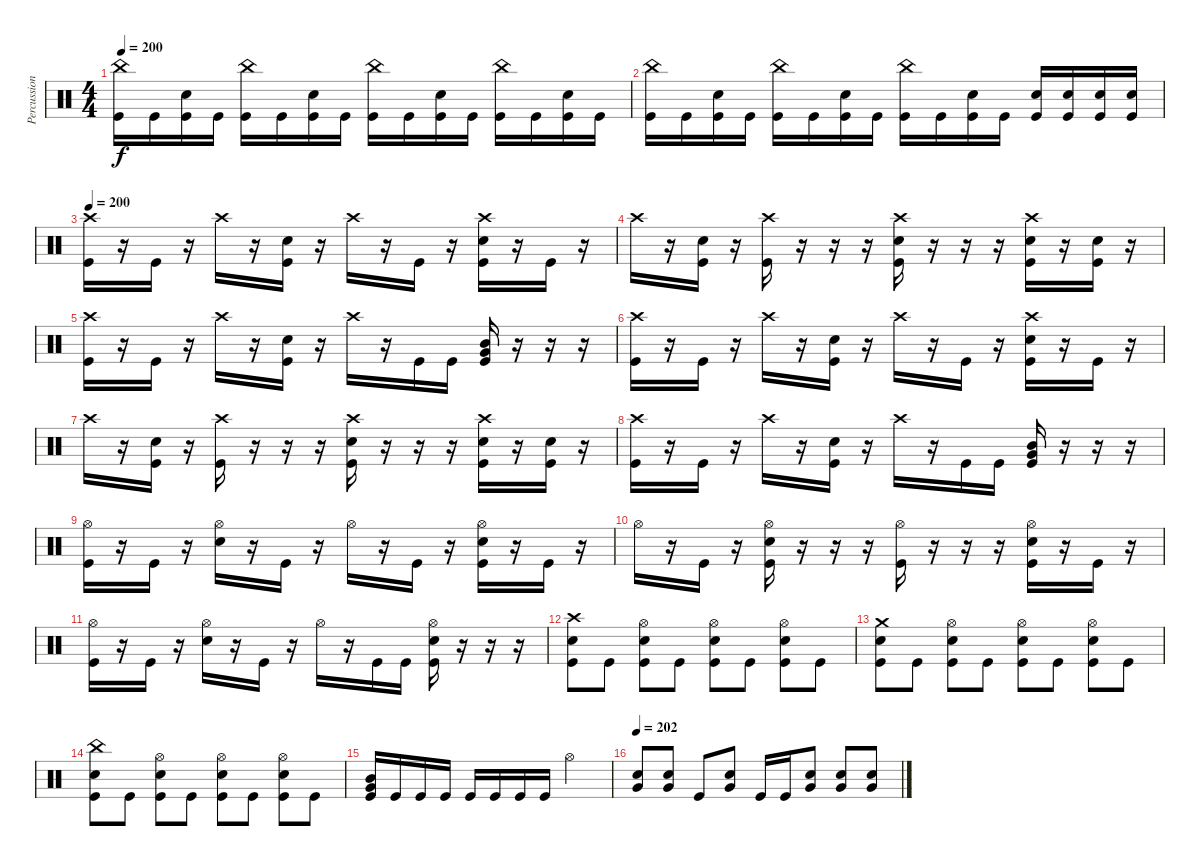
\track ("Percussion" "Percussion") {instrument percussion}
\staff {score}
\articulation defaults
\ts (4 4)
\tempo 200
\clef neutral
\ks c
("China (hit)" "Kick (hit)").16{dy f} "Kick (hit)".16 ("Snare (hit) 2" "Kick (hit)").16 "Kick (hit)".16 ("China (hit)" "Kick (hit)").16 "Kick (hit)".16 ("Snare (hit) 2" "Kick (hit)").16 "Kick (hit)".16 ("China (hit)" "Kick (hit)").16 "Kick (hit)".16 ("Snare (hit) 2" "Kick (hit)").16 "Kick (hit)".16 ("China (hit)" "Kick (hit)").16 "Kick (hit)".16 ("Snare (hit) 2" "Kick (hit)").16 "Kick (hit)".16 |
("China (hit)" "Kick (hit)").16 "Kick (hit)".16 ("Snare (hit) 2" "Kick (hit)").16 "Kick (hit)".16 ("China (hit)" "Kick (hit)").16 "Kick (hit)".16 ("Snare (hit) 2" "Kick (hit)").16 "Kick (hit)".16 ("China (hit)" "Kick (hit)").16 "Kick (hit)".16 ("Snare (hit) 2" "Kick (hit)").16 "Kick (hit)".16 ("Snare (hit) 2" "Kick (hit)").16 ("Snare (hit) 2" "Kick (hit)").16 ("Snare (hit) 2" "Kick (hit)").16 ("Snare (hit) 2" "Kick (hit)").16 |
\tempo 200
("Crash high (hit)" "Kick (hit)").16 r.16 "Kick (hit)".16 r.16 "Crash high (hit)".16 r.16 ("Snare (hit) 2" "Kick (hit)").16 r.16 "Crash high (hit)".16 r.16 "Kick (hit)".16 r.16 ("Crash high (hit)" "Snare (hit) 2" "Kick (hit)").16 r.16 "Kick (hit)".16 r.16 |
"Crash high (hit)".16 r.16 ("Snare (hit) 2" "Kick (hit)").16 r.16 ("Crash high (hit)" "Kick (hit)").16 r.16 r.16 r.16 ("Crash high (hit)" "Snare (hit) 2" "Kick (hit)").16 r.16 r.16 r.16 ("Crash high (hit)" "Snare (hit) 2" "Kick (hit)").16 r.16 ("Snare (hit) 2" "Kick (hit)").16 r.16 |
("Crash high (hit)" "Kick (hit)").16 r.16 "Kick (hit)".16 r.16 "Crash high (hit)".16 r.16 ("Snare (hit) 2" "Kick (hit)").16 r.16 "Crash high (hit)".16 r.16 "Kick (hit)".16 "Kick (hit)".16 ("Very Low Tom (hit)" "Mid Tom (hit)" "Kick (hit)").16 r.16 r.16 r.16 |
("Crash high (hit)" "Kick (hit)").16 r.16 "Kick (hit)".16 r.16 "Crash high (hit)".16 r.16 ("Snare (hit) 2" "Kick (hit)").16 r.16 "Crash high (hit)".16 r.16 "Kick (hit)".16 r.16 ("Crash high (hit)" "Snare (hit) 2" "Kick (hit)").16 r.16 "Kick (hit)".16 r.16 |
"Crash high (hit)".16 r.16 ("Snare (hit) 2" "Kick (hit)").16 r.16 ("Crash high (hit)" "Kick (hit)").16 r.16 r.16 r.16 ("Crash high (hit)" "Snare (hit) 2" "Kick (hit)").16 r.16 r.16 r.16 ("Crash high (hit)" "Snare (hit) 2" "Kick (hit)").16 r.16 ("Snare (hit) 2" "Kick (hit)").16 r.16 |
("Crash high (hit)" "Kick (hit)").16 r.16 "Kick (hit)".16 r.16 "Crash high (hit)".16 r.16 ("Snare (hit) 2" "Kick (hit)").16 r.16 "Crash high (hit)".16 r.16 "Kick (hit)".16 "Kick (hit)".16 ("Very Low Tom (hit)" "Mid Tom (hit)" "Kick (hit)").16 r.16 r.16 r.16 |
("Hi-Hat (open)" "Kick (hit)").16 r.16 "Kick (hit)".16 r.16 ("Hi-Hat (open)" "Snare (hit) 2").16 r.16 "Kick (hit)".16 r.16 "Hi-Hat (open)".16 r.16 "Kick (hit)".16 r.16 ("Hi-Hat (open)" "Snare (hit) 2" "Kick (hit)").16 r.16 "Kick (hit)".16 r.16 |
"Hi-Hat (open)".16 r.16 "Kick (hit)".16 r.16 ("Hi-Hat (open)" "Snare (hit) 2" "Kick (hit)").16 r.16 r.16 r.16 ("Hi-Hat (open)" "Kick (hit)").16 r.16 r.16 r.16 ("Hi-Hat (open)" "Snare (hit) 2" "Kick (hit)").16 r.16 "Kick (hit)".16 r.16 |
("Hi-Hat (open)" "Kick (hit)").16 r.16 "Kick (hit)".16 r.16 ("Hi-Hat (open)" "Snare (hit) 2").16 r.16 "Kick (hit)".16 r.16 "Hi-Hat (open)".16 r.16 "Kick (hit)".16 "Kick (hit)".16 ("Hi-Hat (open)" "Snare (hit) 2" "Kick (hit)").16 r.16 r.16 r.16 |
("Crash high (hit)" "Snare (hit) 2" "Kick (hit)").8 "Kick (hit)".8 ("Hi-Hat (open)" "Snare (hit) 2" "Kick (hit)").8 "Kick (hit)".8 ("Hi-Hat (open)" "Snare (hit) 2" "Kick (hit)").8 "Kick (hit)".8 ("Hi-Hat (open)" "Snare (hit) 2" "Kick (hit)").8 "Kick (hit)".8 |
("Crash medium (hit)" "Snare (hit) 2" "Kick (hit)").8 "Kick (hit)".8 ("Hi-Hat (open)" "Snare (hit) 2" "Kick (hit)").8 "Kick (hit)".8 ("Hi-Hat (open)" "Snare (hit) 2" "Kick (hit)").8 "Kick (hit)".8 ("Hi-Hat (open)" "Snare (hit) 2" "Kick (hit)").8 "Kick (hit)".8 |
("China (hit)" "Snare (hit) 2" "Kick (hit)").8 "Kick (hit)".8 ("Hi-Hat (open)" "Snare (hit) 2" "Kick (hit)").8 "Kick (hit)".8 ("Hi-Hat (open)" "Snare (hit) 2" "Kick (hit)").8 "Kick (hit)".8 ("Hi-Hat (open)" "Snare (hit) 2" "Kick (hit)").8 "Kick (hit)".8 |
("Mid Tom (hit)" "Very Low Tom (hit)" "Kick (hit)").16 "Kick (hit)".16 "Kick (hit)".16 "Kick (hit)".16 "Kick (hit)".16 "Kick (hit)".16 "Kick (hit)".16 "Kick (hit)".16 "Hi-Hat (open)".2 |
\tempo 202
("Very Low Tom (hit)" "Snare (hit) 2").8 ("Very Low Tom (hit)" "Snare (hit) 2").8 "Kick (hit)".8 ("Very Low Tom (hit)" "Snare (hit) 2").8 "Kick (hit)".16 "Kick (hit)".16 ("Very Low Tom (hit)" "Snare (hit) 2").8 ("Very Low Tom (hit)" "Snare (hit) 2").8 ("Very Low Tom (hit)" "Snare (hit) 2").8
